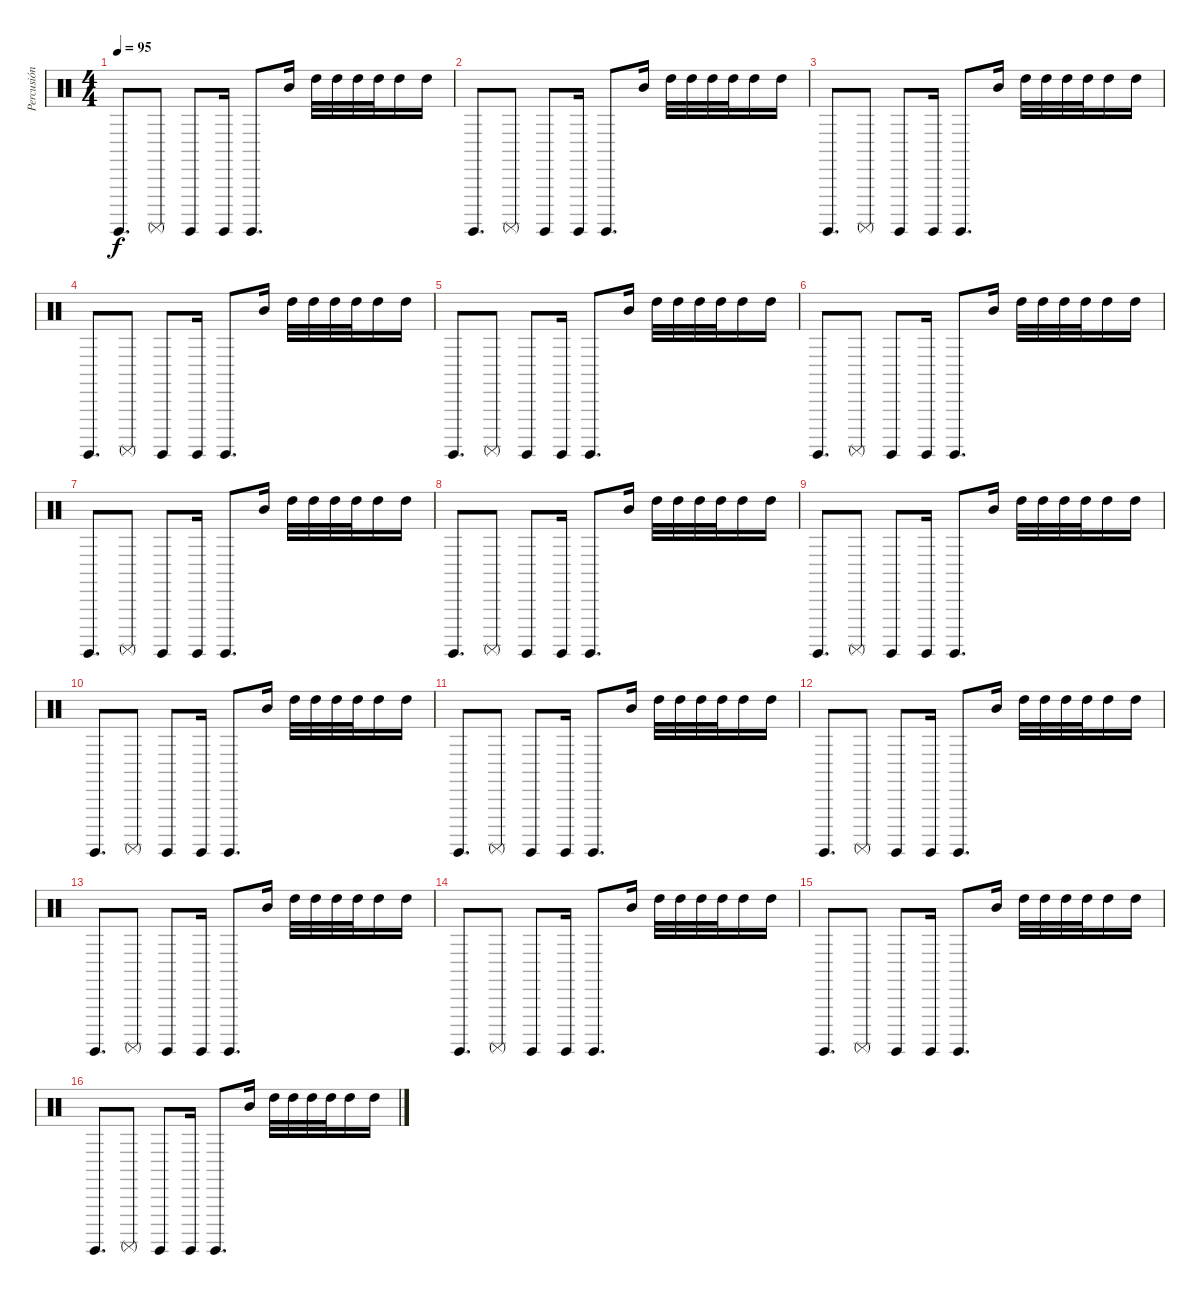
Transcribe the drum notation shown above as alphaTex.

\track ("Percusión - Leonardo Muñoz" "Percusión ") {instrument percussion}
\staff {score}
\articulation defaults
\ts (4 4)
\tempo 95
\clef neutral
\ks c "Surdo (hit)".8{d dy f} "Surdo (mute)".8 "Surdo (hit)".8 "Surdo (hit)".16 "Surdo (hit)".8{d} "Mid Tom (hit)".16 "High Tom (hit)".32 "High Tom (hit)".32 "High Tom (hit)".32 "High Tom (hit)".32 "High Tom (hit)".16 "High Tom (hit)".16
|
"Surdo (hit)".8{d} "Surdo (mute)".8 "Surdo (hit)".8 "Surdo (hit)".16 "Surdo (hit)".8{d} "Mid Tom (hit)".16 "High Tom (hit)".32 "High Tom (hit)".32 "High Tom (hit)".32 "High Tom (hit)".32 "High Tom (hit)".16 "High Tom (hit)".16 |
"Surdo (hit)".8{d} "Surdo (mute)".8 "Surdo (hit)".8 "Surdo (hit)".16 "Surdo (hit)".8{d} "Mid Tom (hit)".16 "High Tom (hit)".32 "High Tom (hit)".32 "High Tom (hit)".32 "High Tom (hit)".32 "High Tom (hit)".16 "High Tom (hit)".16 |
"Surdo (hit)".8{d} "Surdo (mute)".8 "Surdo (hit)".8 "Surdo (hit)".16 "Surdo (hit)".8{d} "Mid Tom (hit)".16 "High Tom (hit)".32 "High Tom (hit)".32 "High Tom (hit)".32 "High Tom (hit)".32 "High Tom (hit)".16 "High Tom (hit)".16 |
"Surdo (hit)".8{d} "Surdo (mute)".8 "Surdo (hit)".8 "Surdo (hit)".16 "Surdo (hit)".8{d} "Mid Tom (hit)".16 "High Tom (hit)".32 "High Tom (hit)".32 "High Tom (hit)".32 "High Tom (hit)".32 "High Tom (hit)".16 "High Tom (hit)".16 |
"Surdo (hit)".8{d} "Surdo (mute)".8 "Surdo (hit)".8 "Surdo (hit)".16 "Surdo (hit)".8{d} "Mid Tom (hit)".16 "High Tom (hit)".32 "High Tom (hit)".32 "High Tom (hit)".32 "High Tom (hit)".32 "High Tom (hit)".16 "High Tom (hit)".16 |
"Surdo (hit)".8{d} "Surdo (mute)".8 "Surdo (hit)".8 "Surdo (hit)".16 "Surdo (hit)".8{d} "Mid Tom (hit)".16 "High Tom (hit)".32 "High Tom (hit)".32 "High Tom (hit)".32 "High Tom (hit)".32 "High Tom (hit)".16 "High Tom (hit)".16 |
"Surdo (hit)".8{d} "Surdo (mute)".8 "Surdo (hit)".8 "Surdo (hit)".16 "Surdo (hit)".8{d} "Mid Tom (hit)".16 "High Tom (hit)".32 "High Tom (hit)".32 "High Tom (hit)".32 "High Tom (hit)".32 "High Tom (hit)".16 "High Tom (hit)".16 |
"Surdo (hit)".8{d} "Surdo (mute)".8 "Surdo (hit)".8 "Surdo (hit)".16 "Surdo (hit)".8{d} "Mid Tom (hit)".16 "High Tom (hit)".32 "High Tom (hit)".32 "High Tom (hit)".32 "High Tom (hit)".32 "High Tom (hit)".16 "High Tom (hit)".16 |
"Surdo (hit)".8{d} "Surdo (mute)".8 "Surdo (hit)".8 "Surdo (hit)".16 "Surdo (hit)".8{d} "Mid Tom (hit)".16 "High Tom (hit)".32 "High Tom (hit)".32 "High Tom (hit)".32 "High Tom (hit)".32 "High Tom (hit)".16 "High Tom (hit)".16 |
"Surdo (hit)".8{d} "Surdo (mute)".8 "Surdo (hit)".8 "Surdo (hit)".16 "Surdo (hit)".8{d} "Mid Tom (hit)".16 "High Tom (hit)".32 "High Tom (hit)".32 "High Tom (hit)".32 "High Tom (hit)".32 "High Tom (hit)".16 "High Tom (hit)".16 |
"Surdo (hit)".8{d} "Surdo (mute)".8 "Surdo (hit)".8 "Surdo (hit)".16 "Surdo (hit)".8{d} "Mid Tom (hit)".16 "High Tom (hit)".32 "High Tom (hit)".32 "High Tom (hit)".32 "High Tom (hit)".32 "High Tom (hit)".16 "High Tom (hit)".16 |
"Surdo (hit)".8{d} "Surdo (mute)".8 "Surdo (hit)".8 "Surdo (hit)".16 "Surdo (hit)".8{d} "Mid Tom (hit)".16 "High Tom (hit)".32 "High Tom (hit)".32 "High Tom (hit)".32 "High Tom (hit)".32 "High Tom (hit)".16 "High Tom (hit)".16 |
"Surdo (hit)".8{d} "Surdo (mute)".8 "Surdo (hit)".8 "Surdo (hit)".16 "Surdo (hit)".8{d} "Mid Tom (hit)".16 "High Tom (hit)".32 "High Tom (hit)".32 "High Tom (hit)".32 "High Tom (hit)".32 "High Tom (hit)".16 "High Tom (hit)".16 |
"Surdo (hit)".8{d} "Surdo (mute)".8 "Surdo (hit)".8 "Surdo (hit)".16 "Surdo (hit)".8{d} "Mid Tom (hit)".16 "High Tom (hit)".32 "High Tom (hit)".32 "High Tom (hit)".32 "High Tom (hit)".32 "High Tom (hit)".16 "High Tom (hit)".16 |
"Surdo (hit)".8{d} "Surdo (mute)".8 "Surdo (hit)".8 "Surdo (hit)".16 "Surdo (hit)".8{d} "Mid Tom (hit)".16 "High Tom (hit)".32 "High Tom (hit)".32 "High Tom (hit)".32 "High Tom (hit)".32 "High Tom (hit)".16 "High Tom (hit)".16
